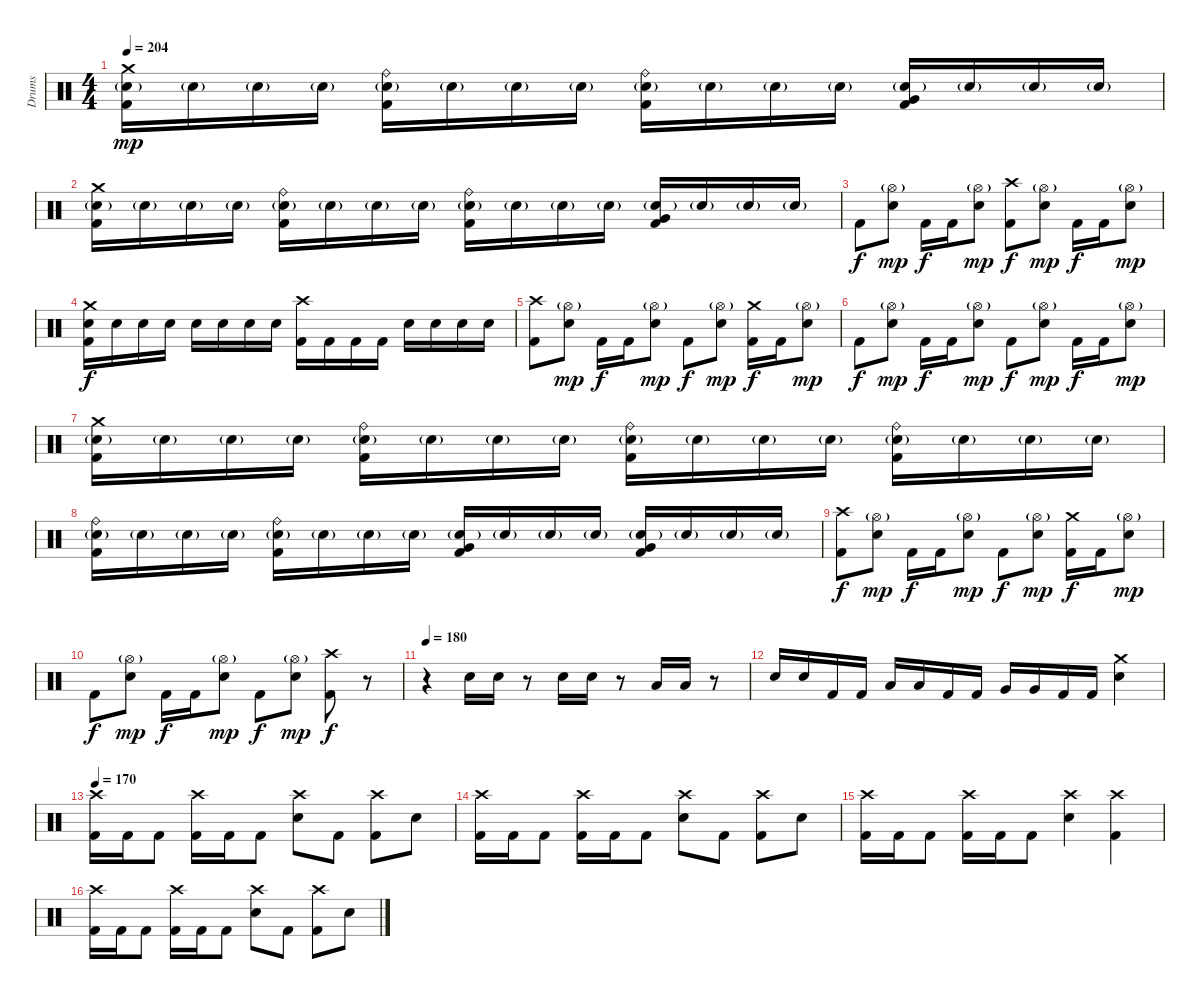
\track ("Drums" "Drums") {instrument percussion}
\staff {score}
\articulation defaults
\ts (4 4)
\tempo 204
\clef neutral
\ks c
("Crash medium (hit)" "Electric Snare (hit)"{g} "Kick (hit) 2").16{dy mp} "Electric Snare (hit)"{g}.16 "Electric Snare (hit)"{g}.16 "Electric Snare (hit)"{g}.16 ("Ride (bell)" "Electric Snare (hit)"{g} "Kick (hit) 2").16 "Electric Snare (hit)"{g}.16 "Electric Snare (hit)"{g}.16 "Electric Snare (hit)"{g}.16 ("Ride (bell)" "Electric Snare (hit)"{g} "Kick (hit) 2").16 "Electric Snare (hit)"{g}.16 "Electric Snare (hit)"{g}.16 "Electric Snare (hit)"{g}.16 ("Very Low Tom (hit)" "Electric Snare (hit)"{g} "Kick (hit) 2").16 "Electric Snare (hit)"{g}.16 "Electric Snare (hit)"{g}.16 "Electric Snare (hit)"{g}.16 |
("Crash medium (hit)" "Electric Snare (hit)"{g} "Kick (hit) 2").16 "Electric Snare (hit)"{g}.16 "Electric Snare (hit)"{g}.16 "Electric Snare (hit)"{g}.16 ("Ride (bell)" "Electric Snare (hit)"{g} "Kick (hit) 2").16 "Electric Snare (hit)"{g}.16 "Electric Snare (hit)"{g}.16 "Electric Snare (hit)"{g}.16 ("Ride (bell)" "Electric Snare (hit)"{g} "Kick (hit) 2").16 "Electric Snare (hit)"{g}.16 "Electric Snare (hit)"{g}.16 "Electric Snare (hit)"{g}.16 ("Very Low Tom (hit)" "Electric Snare (hit)"{g} "Kick (hit) 2").16 "Electric Snare (hit)"{g}.16 "Electric Snare (hit)"{g}.16 "Electric Snare (hit)"{g}.16 |
"Kick (hit) 2".8{dy f} ("Hi-Hat (open)"{g} "Electric Snare (hit)").8{dy mp} "Kick (hit) 2".16{dy f} "Kick (hit) 2".16 ("Hi-Hat (open)"{g} "Electric Snare (hit)").8{dy mp} ("Crash high (hit)" "Kick (hit) 2").8{dy f} ("Hi-Hat (open)"{g} "Electric Snare (hit)").8{dy mp} "Kick (hit) 2".16{dy f} "Kick (hit) 2".16 ("Hi-Hat (open)"{g} "Electric Snare (hit)").8{dy mp} |
("Crash medium (hit)" "Electric Snare (hit)" "Kick (hit) 2").16{dy f} "Electric Snare (hit)".16 "Electric Snare (hit)".16 "Electric Snare (hit)".16 "Electric Snare (hit)".16 "Electric Snare (hit)".16 "Electric Snare (hit)".16 "Electric Snare (hit)".16 ("Crash high (hit)" "Kick (hit) 2").16 "Kick (hit) 2".16 "Kick (hit) 2".16 "Kick (hit) 2".16 "Electric Snare (hit)".16 "Electric Snare (hit)".16 "Electric Snare (hit)".16 "Electric Snare (hit)".16 |
("Crash high (hit)" "Kick (hit) 2").8 ("Hi-Hat (open)"{g} "Electric Snare (hit)").8{dy mp} "Kick (hit) 2".16{dy f} "Kick (hit) 2".16 ("Hi-Hat (open)"{g} "Electric Snare (hit)").8{dy mp} "Kick (hit) 2".8{dy f} ("Hi-Hat (open)"{g} "Electric Snare (hit)").8{dy mp} ("Crash medium (hit)" "Kick (hit) 2").16{dy f} "Kick (hit) 2".16 ("Hi-Hat (open)"{g} "Electric Snare (hit)").8{dy mp} |
"Kick (hit) 2".8{dy f} ("Hi-Hat (open)"{g} "Electric Snare (hit)").8{dy mp} "Kick (hit) 2".16{dy f} "Kick (hit) 2".16 ("Hi-Hat (open)"{g} "Electric Snare (hit)").8{dy mp} "Kick (hit) 2".8{dy f} ("Hi-Hat (open)"{g} "Electric Snare (hit)").8{dy mp} "Kick (hit) 2".16{dy f} "Kick (hit) 2".16 ("Hi-Hat (open)"{g} "Electric Snare (hit)").8{dy mp} |
("Crash medium (hit)" "Electric Snare (hit)"{g} "Kick (hit) 2").16 "Electric Snare (hit)"{g}.16 "Electric Snare (hit)"{g}.16 "Electric Snare (hit)"{g}.16 ("Ride (bell)" "Electric Snare (hit)"{g} "Kick (hit) 2").16 "Electric Snare (hit)"{g}.16 "Electric Snare (hit)"{g}.16 "Electric Snare (hit)"{g}.16 ("Ride (bell)" "Electric Snare (hit)"{g} "Kick (hit) 2").16 "Electric Snare (hit)"{g}.16 "Electric Snare (hit)"{g}.16 "Electric Snare (hit)"{g}.16 ("Ride (bell)" "Electric Snare (hit)"{g} "Kick (hit) 2").16 "Electric Snare (hit)"{g}.16 "Electric Snare (hit)"{g}.16 "Electric Snare (hit)"{g}.16 |
("Ride (bell)" "Electric Snare (hit)"{g} "Kick (hit) 2").16 "Electric Snare (hit)"{g}.16 "Electric Snare (hit)"{g}.16 "Electric Snare (hit)"{g}.16 ("Ride (bell)" "Electric Snare (hit)"{g} "Kick (hit) 2").16 "Electric Snare (hit)"{g}.16 "Electric Snare (hit)"{g}.16 "Electric Snare (hit)"{g}.16 ("Very Low Tom (hit)" "Electric Snare (hit)"{g} "Kick (hit) 2").16 "Electric Snare (hit)"{g}.16 "Electric Snare (hit)"{g}.16 "Electric Snare (hit)"{g}.16 ("Very Low Tom (hit)" "Electric Snare (hit)"{g} "Kick (hit) 2").16 "Electric Snare (hit)"{g}.16 "Electric Snare (hit)"{g}.16 "Electric Snare (hit)"{g}.16 |
("Crash high (hit)" "Kick (hit) 2").8{dy f} ("Hi-Hat (open)"{g} "Electric Snare (hit)").8{dy mp} "Kick (hit) 2".16{dy f} "Kick (hit) 2".16 ("Hi-Hat (open)"{g} "Electric Snare (hit)").8{dy mp} "Kick (hit) 2".8{dy f} ("Hi-Hat (open)"{g} "Electric Snare (hit)").8{dy mp} ("Crash medium (hit)" "Kick (hit) 2").16{dy f} "Kick (hit) 2".16 ("Hi-Hat (open)"{g} "Electric Snare (hit)").8{dy mp} |
"Kick (hit) 2".8{dy f} ("Hi-Hat (open)"{g} "Electric Snare (hit)").8{dy mp} "Kick (hit) 2".16{dy f} "Kick (hit) 2".16 ("Hi-Hat (open)"{g} "Electric Snare (hit)").8{dy mp} "Kick (hit) 2".8{dy f} ("Hi-Hat (open)"{g} "Electric Snare (hit)").8{dy mp} ("Crash high (hit)" "Kick (hit) 2").8{dy f} r.8{volume 0} |
\tempo 180
r.4 "Electric Snare (hit)".16{volume 13} "Electric Snare (hit)".16 r.8 "Electric Snare (hit)".16 "Electric Snare (hit)".16 r.8 "Low Tom (hit)".16 "Low Tom (hit)".16 r.8 |
"Electric Snare (hit)".16 "Electric Snare (hit)".16 "Kick (hit) 2".16 "Kick (hit) 2".16 "Low Tom (hit)".16 "Low Tom (hit)".16 "Kick (hit) 2".16 "Kick (hit) 2".16 "Very Low Tom (hit)".16 "Very Low Tom (hit)".16 "Kick (hit) 2".16 "Kick (hit) 2".16 ("Crash medium (hit)" "Electric Snare (hit)").4 |
\tempo 170
("Crash high (hit)" "Kick (hit) 2").16 "Kick (hit) 2".16 "Kick (hit) 2".8 ("Crash high (hit)" "Kick (hit) 2").16 "Kick (hit) 2".16 "Kick (hit) 2".8 ("Crash high (hit)" "Electric Snare (hit)").8 "Kick (hit) 2".8 ("Crash high (hit)" "Kick (hit) 2").8 "Electric Snare (hit)".8 |
("Crash high (hit)" "Kick (hit) 2").16 "Kick (hit) 2".16 "Kick (hit) 2".8 ("Crash high (hit)" "Kick (hit) 2").16 "Kick (hit) 2".16 "Kick (hit) 2".8 ("Crash high (hit)" "Electric Snare (hit)").8 "Kick (hit) 2".8 ("Crash high (hit)" "Kick (hit) 2").8 "Electric Snare (hit)".8 |
("Crash high (hit)" "Kick (hit) 2").16 "Kick (hit) 2".16 "Kick (hit) 2".8 ("Crash high (hit)" "Kick (hit) 2").16 "Kick (hit) 2".16 "Kick (hit) 2".8 ("Crash high (hit)" "Electric Snare (hit)").4 ("Crash high (hit)" "Kick (hit) 2").4 |
("Crash high (hit)" "Kick (hit) 2").16 "Kick (hit) 2".16 "Kick (hit) 2".8 ("Crash high (hit)" "Kick (hit) 2").16 "Kick (hit) 2".16 "Kick (hit) 2".8 ("Crash high (hit)" "Electric Snare (hit)").8 "Kick (hit) 2".8 ("Crash high (hit)" "Kick (hit) 2").8 "Electric Snare (hit)".8
